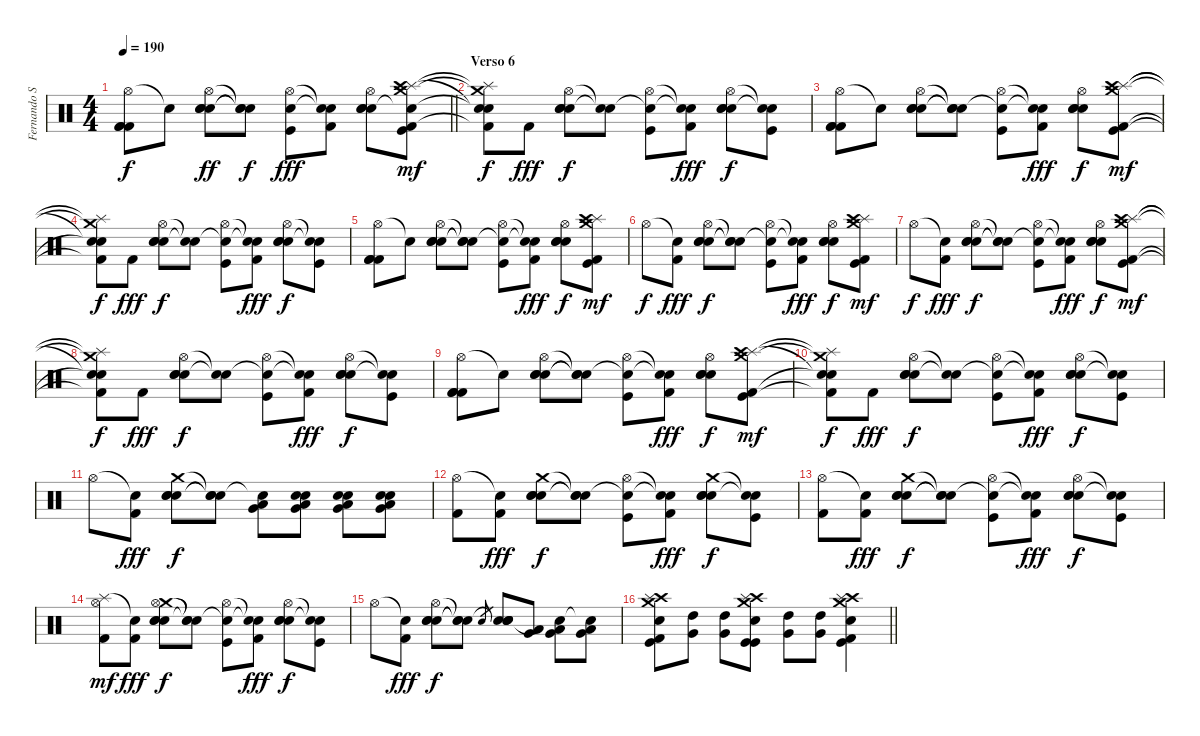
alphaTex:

\track ("Fernando Scarcella" "Fernando S") {instrument percussion}
\staff {score}
\articulation defaults
\ts (4 4)
\tempo 190
\clef neutral
\barLineRight lightlight
\ks c
("Hi-Hat (open)" "Kick (hit) 2" "Kick (hit) 2" "Kick (hit) 2").8{dy f} "Snare (hit)"{t}.8 ("Hi-Hat (open)" "Electric Snare (hit)" "Electric Snare (hit)" "Electric Snare (hit)").8{dy ff} ("Snare (hit)"{t} "Snare (hit)"{t} "Snare (hit)"{t}).8{dy f} ("Hi-Hat (open)" "Electric Snare (hit)" "Kick (hit)").8{dy fff} ("Snare (hit)"{t} "Snare (hit)"{t} "Kick (hit) 2").8 ("Hi-Hat (open)" "Electric Snare (hit)" "Electric Snare (hit)" "Electric Snare (hit)").8 ("Crash medium (hit)" "Splash (hit)" "Snare (hit)"{t} "Crash high (hit)" "Kick (hit) 2" "Kick (hit)").8{dy mf} |
\section ("" "Verso 6")
("Crash medium (hit)"{t} "Splash (hit)"{t} "Snare (hit)"{t} "Snare (hit)"{t} "Kick (hit) 2"{t}).8{dy f} "Kick (hit) 2".8{dy fff} ("Hi-Hat (open)" "Electric Snare (hit)" "Electric Snare (hit)" "Electric Snare (hit)").8{dy f} ("Snare (hit)"{t} "Snare (hit)"{t}).8 ("Hi-Hat (open)" "Snare (hit)"{t} "Kick (hit)").8 ("Snare (hit)"{t} "Snare (hit)"{t} "Kick (hit) 2").8{dy fff} ("Hi-Hat (open)" "Electric Snare (hit)" "Electric Snare (hit)" "Electric Snare (hit)").8{dy f} ("Snare (hit)"{t} "Snare (hit)"{t} "Kick (hit)").8 |
("Hi-Hat (open)" "Kick (hit) 2" "Kick (hit) 2" "Kick (hit) 2").8 "Snare (hit)"{t}.8 ("Hi-Hat (open)" "Electric Snare (hit)" "Electric Snare (hit)" "Electric Snare (hit)").8 ("Snare (hit)"{t} "Snare (hit)"{t} "Snare (hit)"{t}).8 ("Hi-Hat (open)" "Snare (hit)"{t} "Kick (hit)").8 ("Snare (hit)"{t} "Snare (hit)"{t} "Kick (hit) 2").8{dy fff} ("Hi-Hat (open)" "Electric Snare (hit)" "Electric Snare (hit)" "Electric Snare (hit)").8{dy f} ("Crash medium (hit)" "Splash (hit)" "Crash high (hit)" "Kick (hit) 2" "Kick (hit)").8{dy mf} |
("Crash medium (hit)"{t} "Splash (hit)"{t} "Snare (hit)"{t} "Snare (hit)"{t} "Kick (hit) 2"{t}).8{dy f} "Kick (hit) 2".8{dy fff} ("Hi-Hat (open)" "Electric Snare (hit)" "Electric Snare (hit)" "Electric Snare (hit)").8{dy f} ("Snare (hit)"{t} "Snare (hit)"{t}).8 ("Hi-Hat (open)" "Snare (hit)"{t} "Kick (hit)").8 ("Snare (hit)"{t} "Snare (hit)"{t} "Kick (hit) 2").8{dy fff} ("Hi-Hat (open)" "Electric Snare (hit)" "Electric Snare (hit)" "Electric Snare (hit)").8{dy f} ("Snare (hit)"{t} "Snare (hit)"{t} "Kick (hit)").8 |
("Hi-Hat (open)" "Kick (hit) 2" "Kick (hit) 2" "Kick (hit) 2").8 "Snare (hit)"{t}.8 ("Hi-Hat (open)" "Electric Snare (hit)" "Electric Snare (hit)" "Electric Snare (hit)").8 ("Snare (hit)"{t} "Snare (hit)"{t} "Snare (hit)"{t}).8 ("Hi-Hat (open)" "Snare (hit)"{t} "Kick (hit)").8 ("Snare (hit)"{t} "Snare (hit)"{t} "Kick (hit) 2").8{dy fff} ("Hi-Hat (open)" "Electric Snare (hit)" "Electric Snare (hit)" "Electric Snare (hit)").8{dy f} ("Crash medium (hit)" "Splash (hit)" "Crash high (hit)" "Kick (hit) 2" "Kick (hit)").8{dy mf} |
"Hi-Hat (open)".8{dy f} ("Snare (hit)"{t} "Kick (hit) 2").8{dy fff} ("Hi-Hat (open)" "Electric Snare (hit)" "Electric Snare (hit)" "Electric Snare (hit)").8{dy f} ("Snare (hit)"{t} "Snare (hit)"{t} "Snare (hit)"{t}).8 ("Hi-Hat (open)" "Snare (hit)"{t} "Kick (hit)").8 ("Snare (hit)"{t} "Snare (hit)"{t} "Kick (hit) 2").8{dy fff} ("Hi-Hat (open)" "Electric Snare (hit)" "Electric Snare (hit)" "Electric Snare (hit)").8{dy f} ("Crash medium (hit)" "Splash (hit)" "Crash high (hit)" "Kick (hit) 2" "Kick (hit)").8{dy mf} |
"Hi-Hat (open)".8{dy f} ("Snare (hit)"{t} "Kick (hit) 2").8{dy fff} ("Hi-Hat (open)" "Electric Snare (hit)" "Electric Snare (hit)" "Electric Snare (hit)").8{dy f} ("Snare (hit)"{t} "Snare (hit)"{t} "Snare (hit)"{t}).8 ("Hi-Hat (open)" "Snare (hit)"{t} "Kick (hit)").8 ("Snare (hit)"{t} "Snare (hit)"{t} "Kick (hit) 2").8{dy fff} ("Hi-Hat (open)" "Electric Snare (hit)" "Electric Snare (hit)" "Electric Snare (hit)").8{dy f} ("Crash medium (hit)" "Splash (hit)" "Crash high (hit)" "Kick (hit) 2" "Kick (hit)").8{dy mf} |
("Crash medium (hit)"{t} "Splash (hit)"{t} "Snare (hit)"{t} "Snare (hit)"{t} "Kick (hit) 2"{t}).8{dy f} "Kick (hit) 2".8{dy fff} ("Hi-Hat (open)" "Electric Snare (hit)" "Electric Snare (hit)" "Electric Snare (hit)").8{dy f} ("Snare (hit)"{t} "Snare (hit)"{t}).8 ("Hi-Hat (open)" "Snare (hit)"{t} "Kick (hit)").8 ("Snare (hit)"{t} "Snare (hit)"{t} "Kick (hit) 2").8{dy fff} ("Hi-Hat (open)" "Electric Snare (hit)" "Electric Snare (hit)" "Electric Snare (hit)").8{dy f} ("Snare (hit)"{t} "Snare (hit)"{t} "Kick (hit)").8 |
("Hi-Hat (open)" "Kick (hit) 2" "Kick (hit) 2" "Kick (hit) 2").8 "Snare (hit)"{t}.8 ("Hi-Hat (open)" "Electric Snare (hit)" "Electric Snare (hit)" "Electric Snare (hit)").8 ("Snare (hit)"{t} "Snare (hit)"{t} "Snare (hit)"{t}).8 ("Hi-Hat (open)" "Snare (hit)"{t} "Kick (hit)").8 ("Snare (hit)"{t} "Snare (hit)"{t} "Kick (hit) 2").8{dy fff} ("Hi-Hat (open)" "Electric Snare (hit)" "Electric Snare (hit)" "Electric Snare (hit)").8{dy f} ("Crash medium (hit)" "Splash (hit)" "Crash high (hit)" "Kick (hit) 2" "Kick (hit)").8{dy mf} |
("Crash medium (hit)"{t} "Splash (hit)"{t} "Snare (hit)"{t} "Snare (hit)"{t} "Kick (hit) 2"{t}).8{dy f} "Kick (hit) 2".8{dy fff} ("Hi-Hat (open)" "Electric Snare (hit)" "Electric Snare (hit)" "Electric Snare (hit)").8{dy f} ("Snare (hit)"{t} "Snare (hit)"{t}).8 ("Hi-Hat (open)" "Snare (hit)"{t} "Kick (hit)").8 ("Snare (hit)"{t} "Snare (hit)"{t} "Kick (hit) 2").8{dy fff} ("Hi-Hat (open)" "Electric Snare (hit)" "Electric Snare (hit)" "Electric Snare (hit)").8{dy f} ("Snare (hit)"{t} "Snare (hit)"{t} "Kick (hit)").8 |
"Hi-Hat (open)".8 ("Snare (hit)"{t} "Kick (hit) 2").8{dy fff} ("Crash medium (hit)" "Electric Snare (hit)" "Electric Snare (hit)" "Electric Snare (hit)").8{dy f} ("Snare (hit)"{t} "Snare (hit)"{t} "Snare (hit)"{t}).8 ("Snare (hit)"{t} "Very Low Tom (hit)" "Low Tom (hit)").8 ("Electric Snare (hit)" "Electric Snare (hit)" "Very Low Tom (hit)" "Low Tom (hit)").8 ("Electric Snare (hit)" "Electric Snare (hit)" "Very Low Tom (hit)" "Low Tom (hit)").8 ("Electric Snare (hit)" "Electric Snare (hit)" "Very Low Tom (hit)" "Low Tom (hit)").8 |
("Hi-Hat (open)" "Kick (hit) 2").8 ("Snare (hit)"{t} "Kick (hit) 2").8{dy fff} ("Crash medium (hit)" "Electric Snare (hit)" "Electric Snare (hit)" "Electric Snare (hit)").8{dy f} ("Snare (hit)"{t} "Snare (hit)"{t} "Snare (hit)"{t}).8 ("Hi-Hat (open)" "Snare (hit)"{t} "Kick (hit)").8 ("Snare (hit)"{t} "Snare (hit)"{t} "Kick (hit) 2").8{dy fff} ("Crash medium (hit)" "Electric Snare (hit)" "Electric Snare (hit)" "Electric Snare (hit)").8{dy f} ("Snare (hit)"{t} "Snare (hit)"{t} "Kick (hit)").8 |
("Hi-Hat (open)" "Kick (hit) 2").8 ("Snare (hit)"{t} "Kick (hit) 2").8{dy fff} ("Crash medium (hit)" "Electric Snare (hit)" "Electric Snare (hit)" "Electric Snare (hit)").8{dy f} ("Snare (hit)"{t} "Snare (hit)"{t} "Snare (hit)"{t}).8 ("Hi-Hat (open)" "Snare (hit)"{t} "Kick (hit)").8 ("Snare (hit)"{t} "Snare (hit)"{t} "Kick (hit) 2").8{dy fff} ("Hi-Hat (open)" "Electric Snare (hit)" "Electric Snare (hit)" "Electric Snare (hit)").8{dy f} ("Snare (hit)"{t} "Snare (hit)"{t} "Kick (hit)").8 |
("Splash (hit)" "Hi-Hat (open)" "Kick (hit) 2").8{dy mf} ("Snare (hit)"{t} "Kick (hit) 2").8{dy fff} ("Crash medium (hit)" "Hi-Hat (open)" "Electric Snare (hit)" "Electric Snare (hit)" "Electric Snare (hit)").8{dy f} ("Snare (hit)"{t} "Snare (hit)"{t} "Snare (hit)"{t}).8 ("Hi-Hat (open)" "Snare (hit)"{t} "Kick (hit)").8 ("Snare (hit)"{t} "Snare (hit)"{t} "Kick (hit) 2").8{dy fff} ("Hi-Hat (open)" "Electric Snare (hit)" "Electric Snare (hit)" "Electric Snare (hit)").8{dy f} ("Snare (hit)"{t} "Snare (hit)"{t} "Kick (hit)").8 |
"Hi-Hat (open)".8 ("Snare (hit)"{t} "Kick (hit) 2").8{dy fff} ("Hi-Hat (open)" "Electric Snare (hit)" "Electric Snare (hit)" "Electric Snare (hit)").8{dy f} ("Snare (hit)"{t} "Snare (hit)"{t} "Snare (hit)"{t}).8 "Electric Snare (hit)".8{gr} ("Electric Snare (hit)" "Snare (hit)"{t} "Electric Snare (hit)" "Electric Snare (hit)").8 ("Low Tom (hit)" "Very Low Tom (hit)").8 ("Low Tom (hit)" "Very Low Tom (hit)" "Snare (hit)"{t}).8 ("Low Tom (hit)" "Very Low Tom (hit)" "Snare (hit)"{t}).8 |
\barLineRight lightlight
("Crash medium (hit)" "Crash high (hit)" "Splash (hit)" "Electric Snare (hit)" "Kick (hit)" "Kick (hit) 2").8{balance 16} ("Very Low Tom (hit)" "High Tom (hit)").8 ("Very Low Tom (hit)" "High Tom (hit)").8 ("Crash high (hit)" "Crash medium (hit)" "Splash (hit)" "Electric Snare (hit)" "Kick (hit)" "Kick (hit)").8{balance 0} ("Very Low Tom (hit)" "High Tom (hit)").8 ("Very Low Tom (hit)" "High Tom (hit)").8 ("Crash medium (hit)" "Crash high (hit)" "Splash (hit)" "Electric Snare (hit)" "Kick (hit)" "Kick (hit) 2").4{balance 0}
